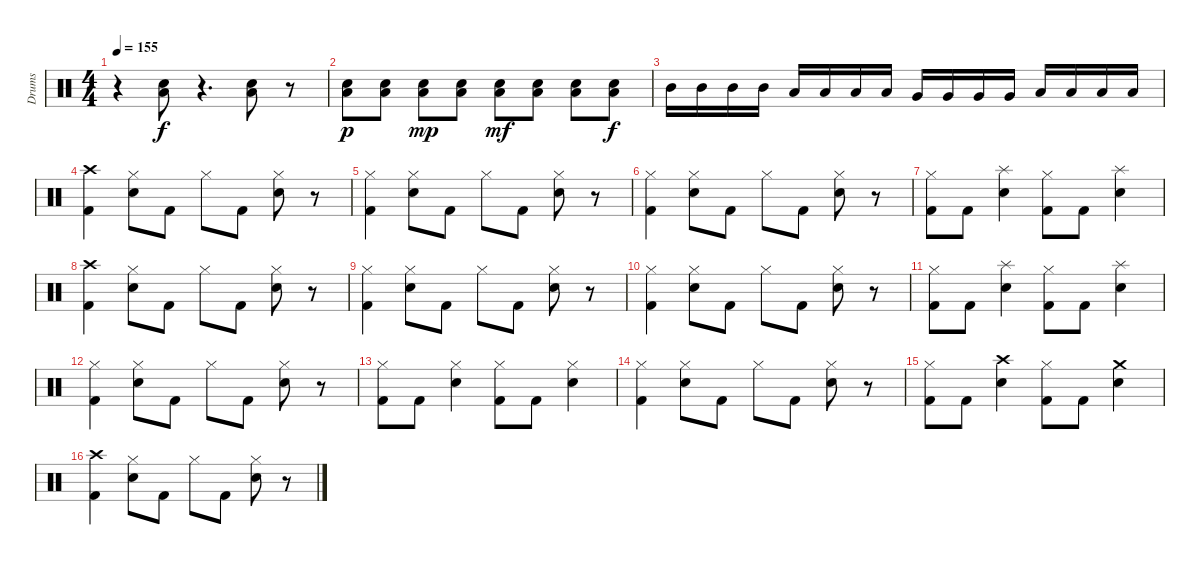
\track ("Drums" "Drums") {instrument percussion}
\staff {score}
\articulation defaults
\ts (4 4)
\tempo 155
\clef neutral
\ks c
r.4{dy f} ("Low Tom (hit)" "Snare (hit) 2").8 r.4{d} ("Low Tom (hit)" "Snare (hit) 2").8 r.8 |
("Low Tom (hit)" "Snare (hit) 2").8{dy p} ("Low Tom (hit)" "Snare (hit) 2").8 ("Low Tom (hit)" "Snare (hit) 2").8{dy mp} ("Low Tom (hit)" "Snare (hit) 2").8 ("Low Tom (hit)" "Snare (hit) 2").8{dy mf} ("Low Tom (hit)" "Snare (hit) 2").8 ("Low Tom (hit)" "Snare (hit) 2").8 ("Low Tom (hit)" "Snare (hit) 2").8{dy f} |
"Mid Tom (hit)".16 "Mid Tom (hit)".16 "Mid Tom (hit)".16 "Mid Tom (hit)".16 "Low Tom (hit)".16 "Low Tom (hit)".16 "Low Tom (hit)".16 "Low Tom (hit)".16 "Very Low Tom (hit)".16 "Very Low Tom (hit)".16 "Very Low Tom (hit)".16 "Very Low Tom (hit)".16 "Low Floor Tom (hit)".16 "Low Floor Tom (hit)".16 "Low Floor Tom (hit)".16 "Low Floor Tom (hit)".16 |
("Crash high (hit)" "Kick (hit) 2").4 ("Hi-Hat (closed)" "Snare (hit) 2").8 "Kick (hit) 2".8 "Hi-Hat (closed)".8 "Kick (hit) 2".8 ("Hi-Hat (closed)" "Snare (hit) 2").8 r.8 |
("Hi-Hat (closed)" "Kick (hit) 2").4 ("Hi-Hat (closed)" "Snare (hit) 2").8 "Kick (hit) 2".8 "Hi-Hat (closed)".8 "Kick (hit) 2".8 ("Hi-Hat (closed)" "Snare (hit) 2").8 r.8 |
("Hi-Hat (closed)" "Kick (hit) 2").4 ("Hi-Hat (closed)" "Snare (hit) 2").8 "Kick (hit) 2".8 "Hi-Hat (closed)".8 "Kick (hit) 2".8 ("Hi-Hat (closed)" "Snare (hit) 2").8 r.8 |
("Hi-Hat (closed)" "Kick (hit) 2").8 "Kick (hit) 2".8 ("Splash (hit)" "Snare (hit) 2").4 ("Hi-Hat (closed)" "Kick (hit) 2").8 "Kick (hit) 2".8 ("Splash (hit)" "Snare (hit) 2").4 |
("Crash high (hit)" "Kick (hit) 2").4 ("Hi-Hat (closed)" "Snare (hit) 2").8 "Kick (hit) 2".8 "Hi-Hat (closed)".8 "Kick (hit) 2".8 ("Hi-Hat (closed)" "Snare (hit) 2").8 r.8 |
("Hi-Hat (closed)" "Kick (hit) 2").4 ("Hi-Hat (closed)" "Snare (hit) 2").8 "Kick (hit) 2".8 "Hi-Hat (closed)".8 "Kick (hit) 2".8 ("Hi-Hat (closed)" "Snare (hit) 2").8 r.8 |
("Hi-Hat (closed)" "Kick (hit) 2").4 ("Hi-Hat (closed)" "Snare (hit) 2").8 "Kick (hit) 2".8 "Hi-Hat (closed)".8 "Kick (hit) 2".8 ("Hi-Hat (closed)" "Snare (hit) 2").8 r.8 |
("Hi-Hat (closed)" "Kick (hit) 2").8 "Kick (hit) 2".8 ("Splash (hit)" "Snare (hit) 2").4 ("Hi-Hat (closed)" "Kick (hit) 2").8 "Kick (hit) 2".8 ("Splash (hit)" "Snare (hit) 2").4 |
("Hi-Hat (closed)" "Kick (hit) 2").4 ("Hi-Hat (closed)" "Snare (hit) 2").8 "Kick (hit) 2".8 "Hi-Hat (closed)".8 "Kick (hit) 2".8 ("Hi-Hat (closed)" "Snare (hit) 2").8 r.8 |
("Hi-Hat (closed)" "Kick (hit) 2").8 "Kick (hit) 2".8 ("Hi-Hat (closed)" "Snare (hit) 2").4 ("Hi-Hat (closed)" "Kick (hit) 2").8 "Kick (hit) 2".8 ("Hi-Hat (closed)" "Snare (hit) 2").4 |
("Hi-Hat (closed)" "Kick (hit) 2").4 ("Hi-Hat (closed)" "Snare (hit) 2").8 "Kick (hit) 2".8 "Hi-Hat (closed)".8 "Kick (hit) 2".8 ("Hi-Hat (closed)" "Snare (hit) 2").8 r.8 |
("Hi-Hat (closed)" "Kick (hit) 2").8 "Kick (hit) 2".8 ("Crash high (hit)" "Snare (hit) 2").4 ("Hi-Hat (closed)" "Kick (hit) 2").8 "Kick (hit) 2".8 ("Crash medium (hit)" "Snare (hit) 2").4 |
("Crash high (hit)" "Kick (hit) 2").4 ("Hi-Hat (closed)" "Snare (hit) 2").8 "Kick (hit) 2".8 "Hi-Hat (closed)".8 "Kick (hit) 2".8 ("Hi-Hat (closed)" "Snare (hit) 2").8 r.8
